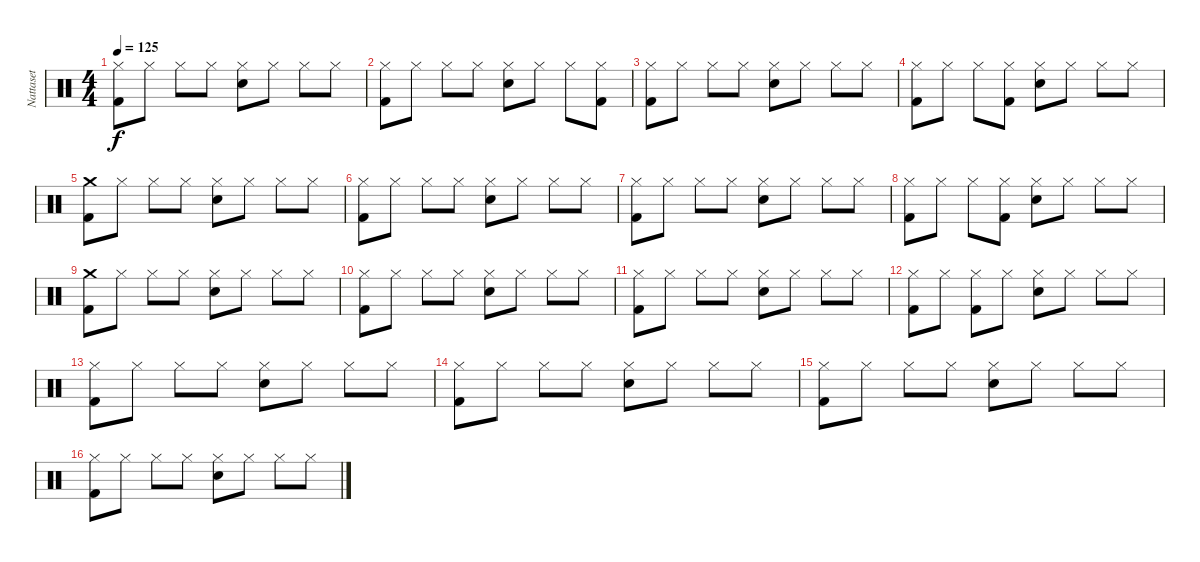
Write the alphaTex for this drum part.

\track ("Nattaset" "Nattaset") {instrument percussion}
\staff {score}
\articulation defaults
\ts (4 4)
\tempo 125
\clef neutral
\ks c
("Kick (hit) 2" "Hi-Hat (closed)").8{dy f} "Hi-Hat (closed)".8 "Hi-Hat (closed)".8 "Hi-Hat (closed)".8 ("Snare (hit) 2" "Hi-Hat (closed)").8 "Hi-Hat (closed)".8 "Hi-Hat (closed)".8 "Hi-Hat (closed)".8 |
("Kick (hit) 2" "Hi-Hat (closed)").8 "Hi-Hat (closed)".8 "Hi-Hat (closed)".8 "Hi-Hat (closed)".8 ("Snare (hit) 2" "Hi-Hat (closed)").8 "Hi-Hat (closed)".8 "Hi-Hat (closed)".8 ("Kick (hit) 2" "Hi-Hat (closed)").8 |
("Kick (hit) 2" "Hi-Hat (closed)").8 "Hi-Hat (closed)".8 "Hi-Hat (closed)".8 "Hi-Hat (closed)".8 ("Snare (hit) 2" "Hi-Hat (closed)").8 "Hi-Hat (closed)".8 "Hi-Hat (closed)".8 "Hi-Hat (closed)".8 |
("Kick (hit) 2" "Hi-Hat (closed)").8 "Hi-Hat (closed)".8 "Hi-Hat (closed)".8 ("Kick (hit) 2" "Hi-Hat (closed)").8 ("Snare (hit) 2" "Hi-Hat (closed)").8 "Hi-Hat (closed)".8 "Hi-Hat (closed)".8 "Hi-Hat (closed)".8 |
("Kick (hit) 2" "Crash medium (hit)").8 "Hi-Hat (closed)".8 "Hi-Hat (closed)".8 "Hi-Hat (closed)".8 ("Snare (hit) 2" "Hi-Hat (closed)").8 "Hi-Hat (closed)".8 "Hi-Hat (closed)".8 "Hi-Hat (closed)".8 |
("Kick (hit) 2" "Hi-Hat (closed)").8 "Hi-Hat (closed)".8 "Hi-Hat (closed)".8 "Hi-Hat (closed)".8 ("Snare (hit) 2" "Hi-Hat (closed)").8 "Hi-Hat (closed)".8 "Hi-Hat (closed)".8 "Hi-Hat (closed)".8 |
("Kick (hit) 2" "Hi-Hat (closed)").8 "Hi-Hat (closed)".8 "Hi-Hat (closed)".8 "Hi-Hat (closed)".8 ("Snare (hit) 2" "Hi-Hat (closed)").8 "Hi-Hat (closed)".8 "Hi-Hat (closed)".8 "Hi-Hat (closed)".8 |
("Kick (hit) 2" "Hi-Hat (closed)").8 "Hi-Hat (closed)".8 "Hi-Hat (closed)".8 ("Kick (hit) 2" "Hi-Hat (closed)").8 ("Snare (hit) 2" "Hi-Hat (closed)").8 "Hi-Hat (closed)".8 "Hi-Hat (closed)".8 "Hi-Hat (closed)".8 |
("Kick (hit) 2" "Crash medium (hit)").8 "Hi-Hat (closed)".8 "Hi-Hat (closed)".8 "Hi-Hat (closed)".8 ("Snare (hit) 2" "Hi-Hat (closed)").8 "Hi-Hat (closed)".8 "Hi-Hat (closed)".8 "Hi-Hat (closed)".8 |
("Kick (hit) 2" "Hi-Hat (closed)").8 "Hi-Hat (closed)".8 "Hi-Hat (closed)".8 "Hi-Hat (closed)".8 ("Snare (hit) 2" "Hi-Hat (closed)").8 "Hi-Hat (closed)".8 "Hi-Hat (closed)".8 "Hi-Hat (closed)".8 |
("Kick (hit) 2" "Hi-Hat (closed)").8 "Hi-Hat (closed)".8 "Hi-Hat (closed)".8 "Hi-Hat (closed)".8 ("Snare (hit) 2" "Hi-Hat (closed)").8 "Hi-Hat (closed)".8 "Hi-Hat (closed)".8 "Hi-Hat (closed)".8 |
("Kick (hit) 2" "Hi-Hat (closed)").8 "Hi-Hat (closed)".8 ("Kick (hit) 2" "Hi-Hat (closed)").8 "Hi-Hat (closed)".8 ("Snare (hit) 2" "Hi-Hat (closed)").8 "Hi-Hat (closed)".8 "Hi-Hat (closed)".8 "Hi-Hat (closed)".8 |
("Kick (hit) 2" "Hi-Hat (closed)").8 "Hi-Hat (closed)".8 "Hi-Hat (closed)".8 "Hi-Hat (closed)".8 ("Snare (hit) 2" "Hi-Hat (closed)").8 "Hi-Hat (closed)".8 "Hi-Hat (closed)".8 "Hi-Hat (closed)".8 |
("Kick (hit) 2" "Hi-Hat (closed)").8 "Hi-Hat (closed)".8 "Hi-Hat (closed)".8 "Hi-Hat (closed)".8 ("Snare (hit) 2" "Hi-Hat (closed)").8 "Hi-Hat (closed)".8 "Hi-Hat (closed)".8 "Hi-Hat (closed)".8 |
("Kick (hit) 2" "Hi-Hat (closed)").8 "Hi-Hat (closed)".8 "Hi-Hat (closed)".8 "Hi-Hat (closed)".8 ("Snare (hit) 2" "Hi-Hat (closed)").8 "Hi-Hat (closed)".8 "Hi-Hat (closed)".8 "Hi-Hat (closed)".8 |
("Kick (hit) 2" "Hi-Hat (closed)").8 "Hi-Hat (closed)".8 "Hi-Hat (closed)".8 "Hi-Hat (closed)".8 ("Snare (hit) 2" "Hi-Hat (closed)").8 "Hi-Hat (closed)".8 "Hi-Hat (closed)".8 "Hi-Hat (closed)".8
